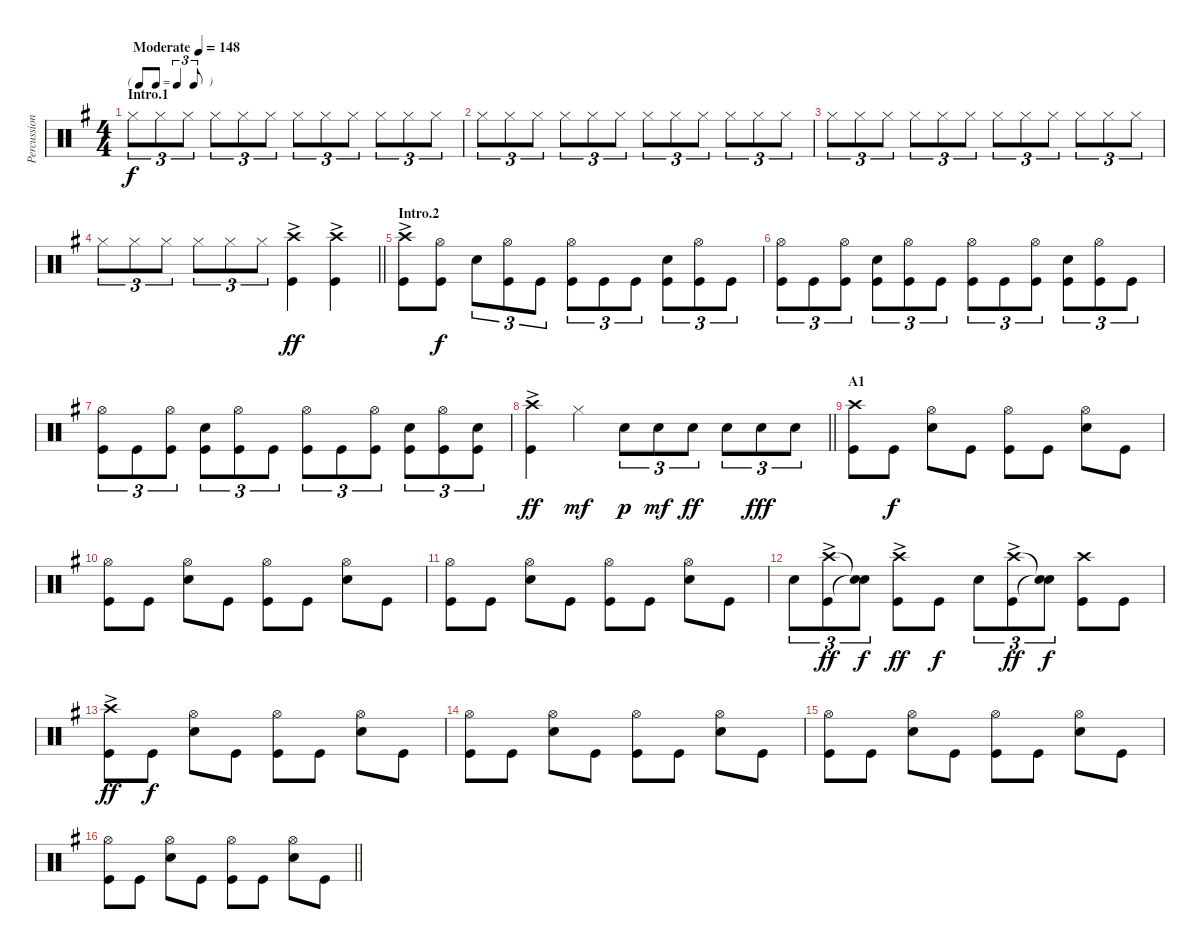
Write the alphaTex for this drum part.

\track ("Percussion" "Percussion") {instrument percussion}
\staff {score}
\articulation defaults
\ts (4 4)
\tf triplet8th
\section ("" "Intro.1")
\tempo (148 "Moderate")
\clef neutral
\ks g "Hi-Hat (closed)".8{tu (3 2) dy f} "Hi-Hat (closed)".8{tu (3 2)} "Hi-Hat (closed)".8{tu (3 2)} "Hi-Hat (closed)".8{tu (3 2)} "Hi-Hat (closed)".8{tu (3 2)} "Hi-Hat (closed)".8{tu (3 2)} "Hi-Hat (closed)".8{tu (3 2)} "Hi-Hat (closed)".8{tu (3 2)} "Hi-Hat (closed)".8{tu (3 2)} "Hi-Hat (closed)".8{tu (3 2)} "Hi-Hat (closed)".8{tu (3 2)} "Hi-Hat (closed)".8{tu (3 2)}
|
"Hi-Hat (closed)".8{tu (3 2)} "Hi-Hat (closed)".8{tu (3 2)} "Hi-Hat (closed)".8{tu (3 2)} "Hi-Hat (closed)".8{tu (3 2)} "Hi-Hat (closed)".8{tu (3 2)} "Hi-Hat (closed)".8{tu (3 2)} "Hi-Hat (closed)".8{tu (3 2)} "Hi-Hat (closed)".8{tu (3 2)} "Hi-Hat (closed)".8{tu (3 2)} "Hi-Hat (closed)".8{tu (3 2)} "Hi-Hat (closed)".8{tu (3 2)} "Hi-Hat (closed)".8{tu (3 2)} |
"Hi-Hat (closed)".8{tu (3 2)} "Hi-Hat (closed)".8{tu (3 2)} "Hi-Hat (closed)".8{tu (3 2)} "Hi-Hat (closed)".8{tu (3 2)} "Hi-Hat (closed)".8{tu (3 2)} "Hi-Hat (closed)".8{tu (3 2)} "Hi-Hat (closed)".8{tu (3 2)} "Hi-Hat (closed)".8{tu (3 2)} "Hi-Hat (closed)".8{tu (3 2)} "Hi-Hat (closed)".8{tu (3 2)} "Hi-Hat (closed)".8{tu (3 2)} "Hi-Hat (closed)".8{tu (3 2)} |
\barLineRight lightlight "Hi-Hat (closed)".8{tu (3 2)} "Hi-Hat (closed)".8{tu (3 2)} "Hi-Hat (closed)".8{tu (3 2)} "Hi-Hat (closed)".8{tu (3 2)} "Hi-Hat (closed)".8{tu (3 2)} "Hi-Hat (closed)".8{tu (3 2)}
("Crash high (hit)"{ac} "Kick (hit)").4{dy ff} ("Crash high (hit)"{ac} "Kick (hit)").4 |
\section ("" "Intro.2")
("Crash high (hit)"{ac} "Kick (hit)").8 ("Hi-Hat (open)" "Kick (hit)").8{dy f} "Snare (hit) 2".8{tu (3 2)} ("Hi-Hat (open)" "Kick (hit)").8{tu (3 2)} "Kick (hit)".8{tu (3 2)} ("Hi-Hat (open)" "Kick (hit)").8{tu (3 2)} "Kick (hit)".8{tu (3 2)} "Kick (hit)".8{tu (3 2)} ("Snare (hit) 2" "Kick (hit)").8{tu (3 2)} ("Hi-Hat (open)" "Kick (hit)").8{tu (3 2)} "Kick (hit)".8{tu (3 2)} |
("Hi-Hat (open)" "Kick (hit)").8{tu (3 2)} "Kick (hit)".8{tu (3 2)} ("Hi-Hat (open)" "Kick (hit)").8{tu (3 2)} ("Snare (hit) 2" "Kick (hit)").8{tu (3 2)} ("Hi-Hat (open)" "Kick (hit)").8{tu (3 2)} "Kick (hit)".8{tu (3 2)} ("Hi-Hat (open)" "Kick (hit)").8{tu (3 2)} "Kick (hit)".8{tu (3 2)} ("Hi-Hat (open)" "Kick (hit)").8{tu (3 2)} ("Snare (hit) 2" "Kick (hit)").8{tu (3 2)} ("Hi-Hat (open)" "Kick (hit)").8{tu (3 2)} "Kick (hit)".8{tu (3 2)} |
("Hi-Hat (open)" "Kick (hit)").8{tu (3 2)} "Kick (hit)".8{tu (3 2)} ("Hi-Hat (open)" "Kick (hit)").8{tu (3 2)} ("Snare (hit) 2" "Kick (hit)").8{tu (3 2)} ("Hi-Hat (open)" "Kick (hit)").8{tu (3 2)} "Kick (hit)".8{tu (3 2)} ("Hi-Hat (open)" "Kick (hit)").8{tu (3 2)} "Kick (hit)".8{tu (3 2)} ("Hi-Hat (open)" "Kick (hit)").8{tu (3 2)} ("Snare (hit) 2" "Kick (hit)").8{tu (3 2)} ("Hi-Hat (open)" "Kick (hit)").8{tu (3 2)} ("Snare (hit) 2" "Kick (hit)").8{tu (3 2)} |
\barLineRight lightlight
("Crash high (hit)"{ac} "Kick (hit)").4{dy ff} "Hi-Hat (closed)".4{dy mf} "Snare (hit) 2".8{tu (3 2) dy p} "Snare (hit) 2".8{tu (3 2) dy mf} "Snare (hit) 2".8{tu (3 2) dy ff} "Snare (hit) 2".8{tu (3 2)} "Snare (hit) 2".8{tu (3 2) dy fff} "Snare (hit) 2".8{tu (3 2)} |
\section ("" "A1")
("Crash high (hit)" "Kick (hit)").8 "Kick (hit)".8{dy f} ("Hi-Hat (open)" "Snare (hit) 2").8 "Kick (hit)".8 ("Hi-Hat (open)" "Kick (hit)").8 "Kick (hit)".8 ("Hi-Hat (open)" "Snare (hit) 2").8 "Kick (hit)".8 |
("Hi-Hat (open)" "Kick (hit)").8 "Kick (hit)".8 ("Hi-Hat (open)" "Snare (hit) 2").8 "Kick (hit)".8 ("Hi-Hat (open)" "Kick (hit)").8 "Kick (hit)".8 ("Hi-Hat (open)" "Snare (hit) 2").8 "Kick (hit)".8 |
("Hi-Hat (open)" "Kick (hit)").8 "Kick (hit)".8 ("Hi-Hat (open)" "Snare (hit) 2").8 "Kick (hit)".8 ("Hi-Hat (open)" "Kick (hit)").8 "Kick (hit)".8 ("Hi-Hat (open)" "Snare (hit) 2").8 "Kick (hit)".8 |
"Snare (hit) 2".8{tu (3 2)} ("Crash high (hit)"{ac} "Kick (hit)").8{tu (3 2) dy ff} ("Snare (hit)"{t} "Snare (hit)"{t}).8{tu (3 2) dy f} ("Crash high (hit)"{ac} "Kick (hit)").8{dy ff} "Kick (hit)".8{dy f} "Snare (hit) 2".8{tu (3 2)} ("Crash high (hit)"{ac} "Kick (hit)").8{tu (3 2) dy ff} ("Snare (hit)"{t} "Snare (hit)"{t}).8{tu (3 2) dy f} ("Crash high (hit)" "Kick (hit)").8 "Kick (hit)".8 |
("Crash high (hit)"{ac} "Kick (hit)").8{dy ff} "Kick (hit)".8{dy f} ("Hi-Hat (open)" "Snare (hit) 2").8 "Kick (hit)".8 ("Hi-Hat (open)" "Kick (hit)").8 "Kick (hit)".8 ("Hi-Hat (open)" "Snare (hit) 2").8 "Kick (hit)".8 |
("Hi-Hat (open)" "Kick (hit)").8 "Kick (hit)".8 ("Hi-Hat (open)" "Snare (hit) 2").8 "Kick (hit)".8 ("Hi-Hat (open)" "Kick (hit)").8 "Kick (hit)".8 ("Hi-Hat (open)" "Snare (hit) 2").8 "Kick (hit)".8 |
("Hi-Hat (open)" "Kick (hit)").8 "Kick (hit)".8 ("Hi-Hat (open)" "Snare (hit) 2").8 "Kick (hit)".8 ("Hi-Hat (open)" "Kick (hit)").8 "Kick (hit)".8 ("Hi-Hat (open)" "Snare (hit) 2").8 "Kick (hit)".8 |
\barLineRight lightlight
("Hi-Hat (open)" "Kick (hit)").8 "Kick (hit)".8 ("Hi-Hat (open)" "Snare (hit) 2").8 "Kick (hit)".8 ("Hi-Hat (open)" "Kick (hit)").8 "Kick (hit)".8 ("Hi-Hat (open)" "Snare (hit) 2").8 "Kick (hit)".8
